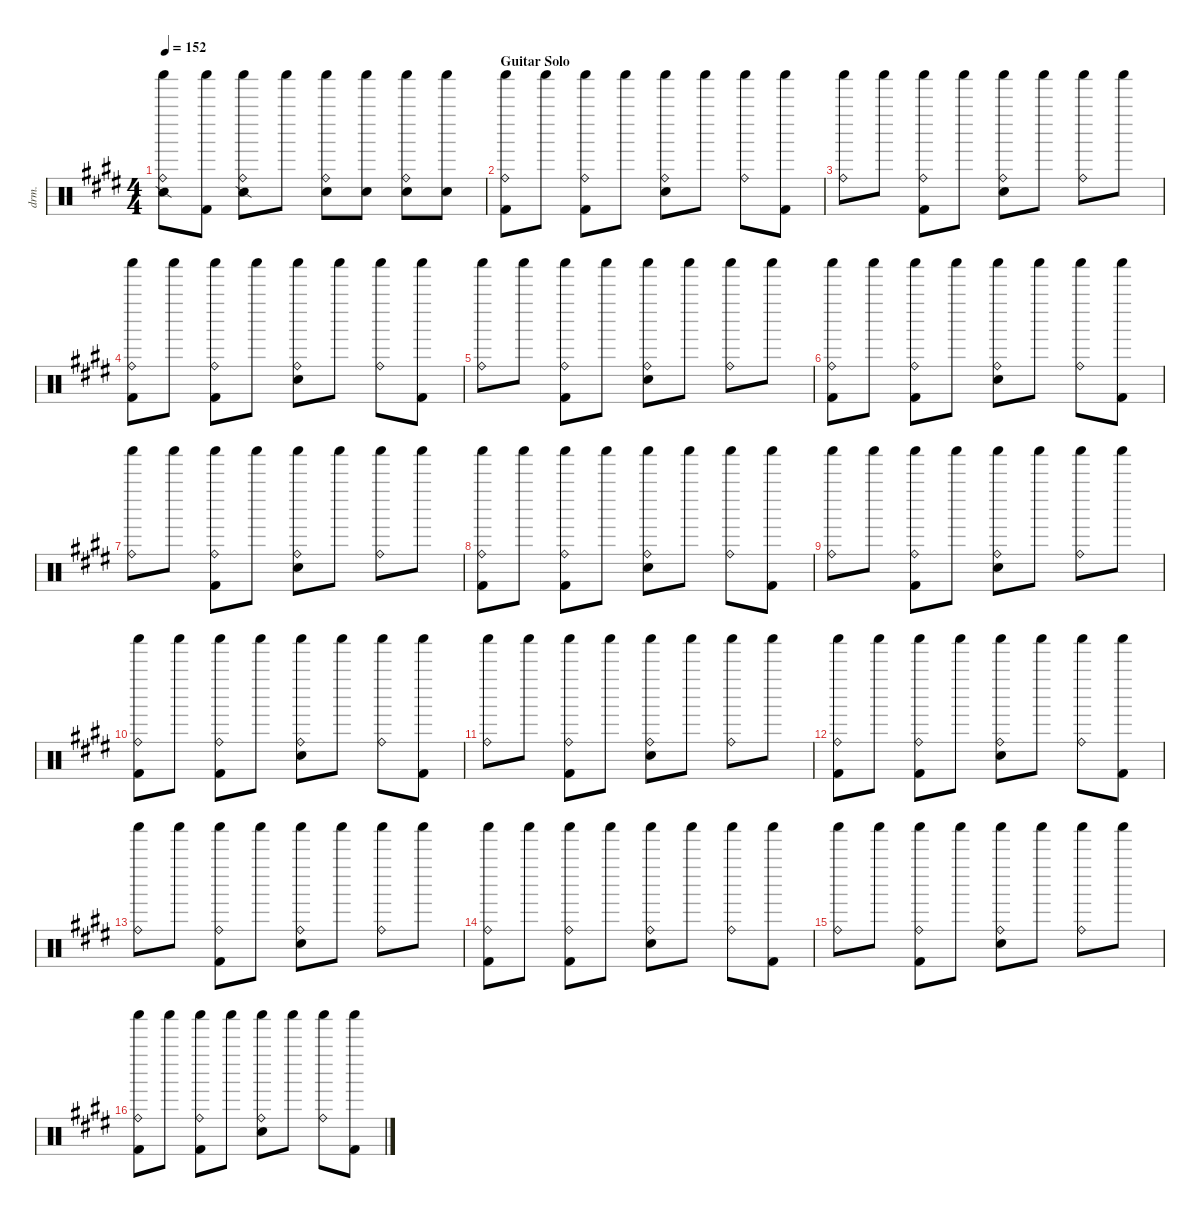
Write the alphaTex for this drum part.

\defaultSystemsLayout 4
\hideDynamics
\bracketExtendMode nobrackets
\otherSystemsTrackNameOrientation horizontal
\track ("Drums" "drm.") {instrument percussion}
\staff {score}
\articulation defaults
\ts (4 4)
\tempo 152
\clef neutral
\ks c#minor
("Snare (side stick) 2"{acc forcenatural} "Ride (bell)"{acc forcenatural} "Shaker (hit)"{acc forcenatural}).8{dy f} ("Shaker (hit)"{acc forcenatural} "Kick (hit) 2"{acc forcenatural}).8 ("Snare (side stick) 2"{acc forcenatural} "Ride (bell)"{acc forcenatural} "Shaker (hit)"{acc forcenatural}).8 "Shaker (hit)"{acc forcenatural}.8 ("Ride (bell)"{acc forcenatural} "Snare (hit) 2"{acc forcenatural} "Shaker (hit)"{acc forcenatural}).8 ("Snare (hit) 2"{acc forcenatural} "Shaker (hit)"{acc forcenatural}).8 ("Snare (hit) 2"{acc forcenatural} "Ride (bell)"{acc forcenatural} "Shaker (hit)"{acc forcenatural}).8 ("Snare (hit) 2"{acc forcenatural} "Shaker (hit)"{acc forcenatural}).8 |
\section ("" "Guitar Solo")
("Ride (bell)"{acc forcenatural} "Kick (hit) 2"{acc forcenatural} "Shaker (hit)"{acc forcenatural}).8 "Shaker (hit)"{acc forcenatural}.8 ("Ride (bell)"{acc forcenatural} "Kick (hit) 2"{acc forcenatural} "Shaker (hit)"{acc forcenatural}).8 "Shaker (hit)"{acc forcenatural}.8 ("Ride (bell)"{acc forcenatural} "Snare (hit) 2"{acc forcenatural} "Shaker (hit)"{acc forcenatural}).8 "Shaker (hit)"{acc forcenatural}.8 ("Ride (bell)"{acc forcenatural} "Shaker (hit)"{acc forcenatural}).8 ("Kick (hit) 2"{acc forcenatural} "Shaker (hit)"{acc forcenatural}).8 |
("Ride (bell)"{acc forcenatural} "Shaker (hit)"{acc forcenatural}).8 "Shaker (hit)"{acc forcenatural}.8 ("Ride (bell)"{acc forcenatural} "Kick (hit) 2"{acc forcenatural} "Shaker (hit)"{acc forcenatural}).8 "Shaker (hit)"{acc forcenatural}.8 ("Ride (bell)"{acc forcenatural} "Snare (hit) 2"{acc forcenatural} "Shaker (hit)"{acc forcenatural}).8 "Shaker (hit)"{acc forcenatural}.8 ("Ride (bell)"{acc forcenatural} "Shaker (hit)"{acc forcenatural}).8 "Shaker (hit)"{acc forcenatural}.8 |
("Ride (bell)"{acc forcenatural} "Kick (hit) 2"{acc forcenatural} "Shaker (hit)"{acc forcenatural}).8 "Shaker (hit)"{acc forcenatural}.8 ("Ride (bell)"{acc forcenatural} "Kick (hit) 2"{acc forcenatural} "Shaker (hit)"{acc forcenatural}).8 "Shaker (hit)"{acc forcenatural}.8 ("Ride (bell)"{acc forcenatural} "Snare (hit) 2"{acc forcenatural} "Shaker (hit)"{acc forcenatural}).8 "Shaker (hit)"{acc forcenatural}.8 ("Ride (bell)"{acc forcenatural} "Shaker (hit)"{acc forcenatural}).8 ("Kick (hit) 2"{acc forcenatural} "Shaker (hit)"{acc forcenatural}).8 |
("Ride (bell)"{acc forcenatural} "Shaker (hit)"{acc forcenatural}).8 "Shaker (hit)"{acc forcenatural}.8 ("Ride (bell)"{acc forcenatural} "Kick (hit) 2"{acc forcenatural} "Shaker (hit)"{acc forcenatural}).8 "Shaker (hit)"{acc forcenatural}.8 ("Ride (bell)"{acc forcenatural} "Snare (hit) 2"{acc forcenatural} "Shaker (hit)"{acc forcenatural}).8 "Shaker (hit)"{acc forcenatural}.8 ("Ride (bell)"{acc forcenatural} "Shaker (hit)"{acc forcenatural}).8 "Shaker (hit)"{acc forcenatural}.8 |
("Ride (bell)"{acc forcenatural} "Kick (hit) 2"{acc forcenatural} "Shaker (hit)"{acc forcenatural}).8 "Shaker (hit)"{acc forcenatural}.8 ("Ride (bell)"{acc forcenatural} "Kick (hit) 2"{acc forcenatural} "Shaker (hit)"{acc forcenatural}).8 "Shaker (hit)"{acc forcenatural}.8 ("Ride (bell)"{acc forcenatural} "Snare (hit) 2"{acc forcenatural} "Shaker (hit)"{acc forcenatural}).8 "Shaker (hit)"{acc forcenatural}.8 ("Ride (bell)"{acc forcenatural} "Shaker (hit)"{acc forcenatural}).8 ("Kick (hit) 2"{acc forcenatural} "Shaker (hit)"{acc forcenatural}).8 |
("Ride (bell)"{acc forcenatural} "Shaker (hit)"{acc forcenatural}).8 "Shaker (hit)"{acc forcenatural}.8 ("Ride (bell)"{acc forcenatural} "Kick (hit) 2"{acc forcenatural} "Shaker (hit)"{acc forcenatural}).8 "Shaker (hit)"{acc forcenatural}.8 ("Ride (bell)"{acc forcenatural} "Snare (hit) 2"{acc forcenatural} "Shaker (hit)"{acc forcenatural}).8 "Shaker (hit)"{acc forcenatural}.8 ("Ride (bell)"{acc forcenatural} "Shaker (hit)"{acc forcenatural}).8 "Shaker (hit)"{acc forcenatural}.8 |
("Ride (bell)"{acc forcenatural} "Kick (hit) 2"{acc forcenatural} "Shaker (hit)"{acc forcenatural}).8 "Shaker (hit)"{acc forcenatural}.8 ("Ride (bell)"{acc forcenatural} "Kick (hit) 2"{acc forcenatural} "Shaker (hit)"{acc forcenatural}).8 "Shaker (hit)"{acc forcenatural}.8 ("Ride (bell)"{acc forcenatural} "Snare (hit) 2"{acc forcenatural} "Shaker (hit)"{acc forcenatural}).8 "Shaker (hit)"{acc forcenatural}.8 ("Ride (bell)"{acc forcenatural} "Shaker (hit)"{acc forcenatural}).8 ("Kick (hit) 2"{acc forcenatural} "Shaker (hit)"{acc forcenatural}).8 |
("Ride (bell)"{acc forcenatural} "Shaker (hit)"{acc forcenatural}).8 "Shaker (hit)"{acc forcenatural}.8 ("Ride (bell)"{acc forcenatural} "Kick (hit) 2"{acc forcenatural} "Shaker (hit)"{acc forcenatural}).8 "Shaker (hit)"{acc forcenatural}.8 ("Ride (bell)"{acc forcenatural} "Snare (hit) 2"{acc forcenatural} "Shaker (hit)"{acc forcenatural}).8 "Shaker (hit)"{acc forcenatural}.8 ("Ride (bell)"{acc forcenatural} "Shaker (hit)"{acc forcenatural}).8 "Shaker (hit)"{acc forcenatural}.8 |
("Ride (bell)"{acc forcenatural} "Kick (hit) 2"{acc forcenatural} "Shaker (hit)"{acc forcenatural}).8 "Shaker (hit)"{acc forcenatural}.8 ("Ride (bell)"{acc forcenatural} "Kick (hit) 2"{acc forcenatural} "Shaker (hit)"{acc forcenatural}).8 "Shaker (hit)"{acc forcenatural}.8 ("Ride (bell)"{acc forcenatural} "Snare (hit) 2"{acc forcenatural} "Shaker (hit)"{acc forcenatural}).8 "Shaker (hit)"{acc forcenatural}.8 ("Ride (bell)"{acc forcenatural} "Shaker (hit)"{acc forcenatural}).8 ("Kick (hit) 2"{acc forcenatural} "Shaker (hit)"{acc forcenatural}).8 |
("Ride (bell)"{acc forcenatural} "Shaker (hit)"{acc forcenatural}).8 "Shaker (hit)"{acc forcenatural}.8 ("Ride (bell)"{acc forcenatural} "Kick (hit) 2"{acc forcenatural} "Shaker (hit)"{acc forcenatural}).8 "Shaker (hit)"{acc forcenatural}.8 ("Ride (bell)"{acc forcenatural} "Snare (hit) 2"{acc forcenatural} "Shaker (hit)"{acc forcenatural}).8 "Shaker (hit)"{acc forcenatural}.8 ("Ride (bell)"{acc forcenatural} "Shaker (hit)"{acc forcenatural}).8 "Shaker (hit)"{acc forcenatural}.8 |
("Ride (bell)"{acc forcenatural} "Kick (hit) 2"{acc forcenatural} "Shaker (hit)"{acc forcenatural}).8 "Shaker (hit)"{acc forcenatural}.8 ("Ride (bell)"{acc forcenatural} "Kick (hit) 2"{acc forcenatural} "Shaker (hit)"{acc forcenatural}).8 "Shaker (hit)"{acc forcenatural}.8 ("Ride (bell)"{acc forcenatural} "Snare (hit) 2"{acc forcenatural} "Shaker (hit)"{acc forcenatural}).8 "Shaker (hit)"{acc forcenatural}.8 ("Ride (bell)"{acc forcenatural} "Shaker (hit)"{acc forcenatural}).8 ("Kick (hit) 2"{acc forcenatural} "Shaker (hit)"{acc forcenatural}).8 |
("Ride (bell)"{acc forcenatural} "Shaker (hit)"{acc forcenatural}).8 "Shaker (hit)"{acc forcenatural}.8 ("Ride (bell)"{acc forcenatural} "Kick (hit) 2"{acc forcenatural} "Shaker (hit)"{acc forcenatural}).8 "Shaker (hit)"{acc forcenatural}.8 ("Ride (bell)"{acc forcenatural} "Snare (hit) 2"{acc forcenatural} "Shaker (hit)"{acc forcenatural}).8 "Shaker (hit)"{acc forcenatural}.8 ("Ride (bell)"{acc forcenatural} "Shaker (hit)"{acc forcenatural}).8 "Shaker (hit)"{acc forcenatural}.8 |
("Ride (bell)"{acc forcenatural} "Kick (hit) 2"{acc forcenatural} "Shaker (hit)"{acc forcenatural}).8 "Shaker (hit)"{acc forcenatural}.8 ("Ride (bell)"{acc forcenatural} "Kick (hit) 2"{acc forcenatural} "Shaker (hit)"{acc forcenatural}).8 "Shaker (hit)"{acc forcenatural}.8 ("Ride (bell)"{acc forcenatural} "Snare (hit) 2"{acc forcenatural} "Shaker (hit)"{acc forcenatural}).8 "Shaker (hit)"{acc forcenatural}.8 ("Ride (bell)"{acc forcenatural} "Shaker (hit)"{acc forcenatural}).8 ("Kick (hit) 2"{acc forcenatural} "Shaker (hit)"{acc forcenatural}).8 |
("Ride (bell)"{acc forcenatural} "Shaker (hit)"{acc forcenatural}).8 "Shaker (hit)"{acc forcenatural}.8 ("Ride (bell)"{acc forcenatural} "Kick (hit) 2"{acc forcenatural} "Shaker (hit)"{acc forcenatural}).8 "Shaker (hit)"{acc forcenatural}.8 ("Ride (bell)"{acc forcenatural} "Snare (hit) 2"{acc forcenatural} "Shaker (hit)"{acc forcenatural}).8 "Shaker (hit)"{acc forcenatural}.8 ("Ride (bell)"{acc forcenatural} "Shaker (hit)"{acc forcenatural}).8 "Shaker (hit)"{acc forcenatural}.8 |
("Ride (bell)"{acc forcenatural} "Kick (hit) 2"{acc forcenatural} "Shaker (hit)"{acc forcenatural}).8 "Shaker (hit)"{acc forcenatural}.8 ("Ride (bell)"{acc forcenatural} "Kick (hit) 2"{acc forcenatural} "Shaker (hit)"{acc forcenatural}).8 "Shaker (hit)"{acc forcenatural}.8 ("Ride (bell)"{acc forcenatural} "Snare (hit) 2"{acc forcenatural} "Shaker (hit)"{acc forcenatural}).8 "Shaker (hit)"{acc forcenatural}.8 ("Ride (bell)"{acc forcenatural} "Shaker (hit)"{acc forcenatural}).8 ("Kick (hit) 2"{acc forcenatural} "Shaker (hit)"{acc forcenatural}).8
